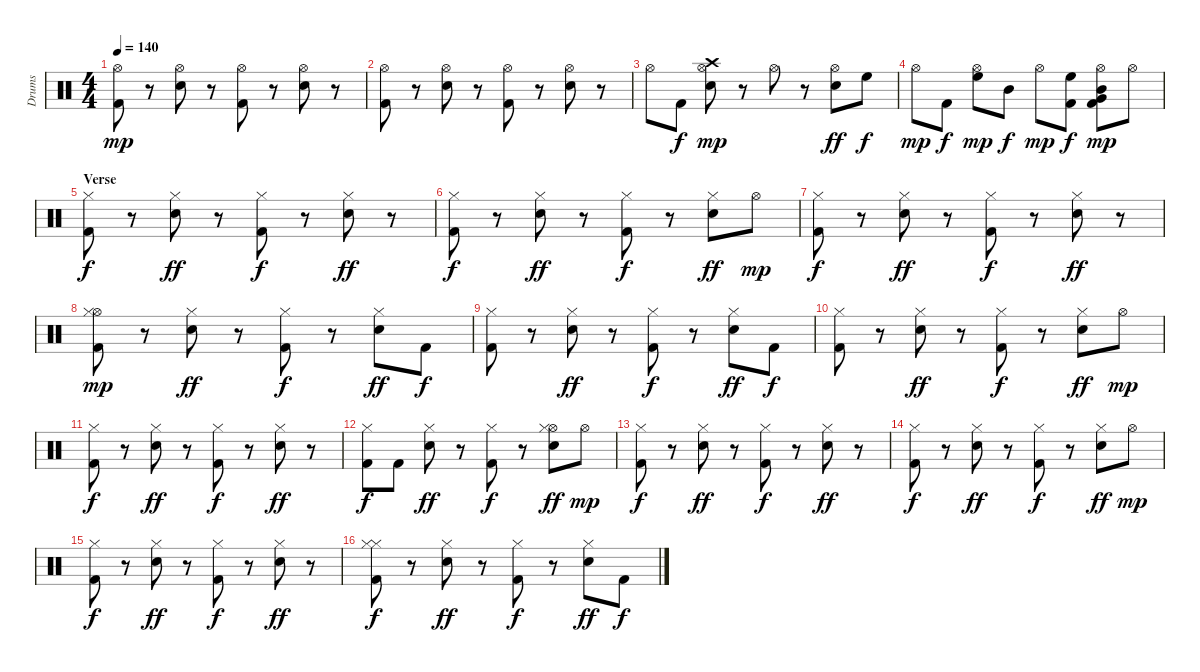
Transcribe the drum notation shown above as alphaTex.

\track ("Drums" "Drums") {instrument percussion}
\staff {score}
\articulation defaults
\ts (4 4)
\tempo 140
\clef neutral
\ks c
("Hi-Hat (open)" "Kick (hit) 2").8{dy mp} r.8 ("Snare (hit) 2" "Hi-Hat (open)").8 r.8 ("Kick (hit) 2" "Hi-Hat (open)").8 r.8 ("Snare (hit) 2" "Hi-Hat (open)").8 r.8 |
("Kick (hit) 2" "Hi-Hat (open)").8 r.8 ("Snare (hit) 2" "Hi-Hat (open)").8 r.8 ("Hi-Hat (open)" "Kick (hit) 2").8 r.8 ("Snare (hit) 2" "Hi-Hat (open)").8 r.8 |
"Hi-Hat (open)".8 "Kick (hit) 2".8{dy f} ("Snare (hit) 2" "Hi-Hat (open)" "Crash high (hit)").8{dy mp} r.8 "Hi-Hat (open)".8 r.8 ("Hi-Hat (open)" "Snare (hit) 2").8{dy ff} "High Floor Tom (hit)".8{dy f} |
"Hi-Hat (open)".8{dy mp} "Kick (hit) 2".8{dy f} ("Hi-Hat (open)" "High Floor Tom (hit)").8{dy mp} "Mid Tom (hit)".8{dy f} "Hi-Hat (open)".8{dy mp} ("Kick (hit) 2" "High Floor Tom (hit)").8{dy f} ("Mid Tom (hit)" "Kick (hit) 2" "Hi-Hat (open)" "Very Low Tom (hit)").8{dy mp} "Hi-Hat (open)".8 |
\section ("" "Verse")
("Hi-Hat (closed)" "Kick (hit) 2").8{dy f} r.8 ("Snare (hit) 2" "Hi-Hat (closed)").8{dy ff} r.8 ("Kick (hit) 2" "Hi-Hat (closed)").8{dy f} r.8 ("Snare (hit) 2" "Hi-Hat (closed)").8{dy ff} r.8 |
("Hi-Hat (closed)" "Kick (hit) 2").8{dy f} r.8 ("Snare (hit) 2" "Hi-Hat (closed)").8{dy ff} r.8 ("Hi-Hat (closed)" "Kick (hit) 2").8{dy f} r.8 ("Hi-Hat (closed)" "Snare (hit) 2").8{dy ff} "Hi-Hat (open)".8{dy mp} |
("Hi-Hat (closed)" "Kick (hit) 2").8{dy f} r.8 ("Snare (hit) 2" "Hi-Hat (closed)").8{dy ff} r.8 ("Kick (hit) 2" "Hi-Hat (closed)").8{dy f} r.8 ("Snare (hit) 2" "Hi-Hat (closed)").8{dy ff} r.8 |
("Hi-Hat (open)" "Kick (hit) 2" "Hi-Hat (closed)").8{dy mp} r.8 ("Snare (hit) 2" "Hi-Hat (closed)").8{dy ff} r.8 ("Kick (hit) 2" "Hi-Hat (closed)").8{dy f} r.8 ("Snare (hit) 2" "Hi-Hat (closed)").8{dy ff} "Kick (hit) 2".8{dy f} |
("Kick (hit) 2" "Hi-Hat (closed)").8 r.8 ("Hi-Hat (closed)" "Snare (hit) 2").8{dy ff} r.8 ("Kick (hit) 2" "Hi-Hat (closed)").8{dy f} r.8 ("Snare (hit) 2" "Hi-Hat (closed)").8{dy ff} "Kick (hit) 2".8{dy f} |
("Kick (hit) 2" "Hi-Hat (closed)").8 r.8 ("Snare (hit) 2" "Hi-Hat (closed)").8{dy ff} r.8 ("Kick (hit) 2" "Hi-Hat (closed)").8{dy f} r.8 ("Hi-Hat (closed)" "Snare (hit) 2").8{dy ff} "Hi-Hat (open)".8{dy mp} |
("Kick (hit) 2" "Hi-Hat (closed)").8{dy f} r.8 ("Snare (hit) 2" "Hi-Hat (closed)").8{dy ff} r.8 ("Kick (hit) 2" "Hi-Hat (closed)").8{dy f} r.8 ("Hi-Hat (closed)" "Snare (hit) 2").8{dy ff} r.8 |
("Kick (hit) 2" "Hi-Hat (closed)").8{dy f} "Kick (hit) 2".8 ("Snare (hit) 2" "Hi-Hat (closed)").8{dy ff} r.8 ("Kick (hit) 2" "Hi-Hat (closed)").8{dy f} r.8 ("Hi-Hat (open)" "Snare (hit) 2" "Hi-Hat (closed)").8{dy ff} "Hi-Hat (open)".8{dy mp} |
("Hi-Hat (closed)" "Kick (hit) 2").8{dy f} r.8 ("Hi-Hat (closed)" "Snare (hit) 2").8{dy ff} r.8 ("Hi-Hat (closed)" "Kick (hit) 2").8{dy f} r.8 ("Hi-Hat (closed)" "Snare (hit) 2").8{dy ff} r.8 |
("Kick (hit) 2" "Hi-Hat (closed)").8{dy f} r.8 ("Snare (hit) 2" "Hi-Hat (closed)").8{dy ff} r.8 ("Hi-Hat (closed)" "Kick (hit) 2").8{dy f} r.8 ("Hi-Hat (closed)" "Snare (hit) 2").8{dy ff} "Hi-Hat (open)".8{dy mp} |
("Hi-Hat (closed)" "Kick (hit) 2").8{dy f} r.8 ("Snare (hit) 2" "Hi-Hat (closed)").8{dy ff} r.8 ("Hi-Hat (closed)" "Kick (hit) 2").8{dy f} r.8 ("Snare (hit) 2" "Hi-Hat (closed)").8{dy ff} r.8 |
("Hi-Hat (closed)" "Hi-Hat (closed)" "Kick (hit) 2").8{dy f} r.8 ("Hi-Hat (closed)" "Snare (hit) 2").8{dy ff} r.8 ("Kick (hit) 2" "Hi-Hat (closed)").8{dy f} r.8 ("Snare (hit) 2" "Hi-Hat (closed)").8{dy ff} "Kick (hit) 2".8{dy f}
